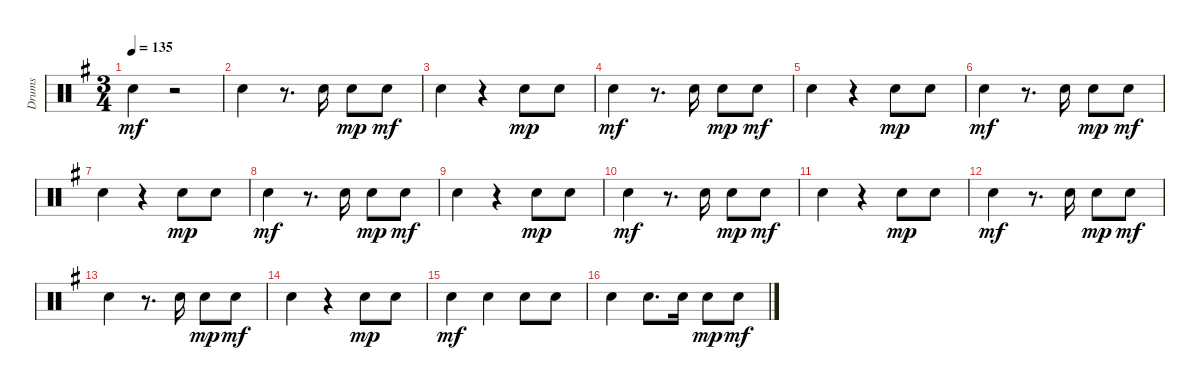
\track ("Drums" "Drums") {instrument percussion}
\staff {score}
\articulation defaults
\ts (3 4)
\tempo 135
\clef neutral
\ks eminor "Snare (hit) 2".4{dy mf}
r.2 |
"Snare (hit) 2".4 r.8{d} "Snare (hit) 2".16 "Snare (hit) 2".8{dy mp} "Snare (hit) 2".8{dy mf} |
"Snare (hit) 2".4 r.4 "Snare (hit) 2".8{dy mp} "Snare (hit) 2".8 |
"Snare (hit) 2".4{dy mf} r.8{d} "Snare (hit) 2".16 "Snare (hit) 2".8{dy mp} "Snare (hit) 2".8{dy mf} |
"Snare (hit) 2".4 r.4 "Snare (hit) 2".8{dy mp} "Snare (hit) 2".8 |
"Snare (hit) 2".4{dy mf} r.8{d} "Snare (hit) 2".16 "Snare (hit) 2".8{dy mp} "Snare (hit) 2".8{dy mf} |
"Snare (hit) 2".4 r.4 "Snare (hit) 2".8{dy mp} "Snare (hit) 2".8 |
"Snare (hit) 2".4{dy mf} r.8{d} "Snare (hit) 2".16 "Snare (hit) 2".8{dy mp} "Snare (hit) 2".8{dy mf} |
"Snare (hit) 2".4 r.4 "Snare (hit) 2".8{dy mp} "Snare (hit) 2".8 |
"Snare (hit) 2".4{dy mf} r.8{d} "Snare (hit) 2".16 "Snare (hit) 2".8{dy mp} "Snare (hit) 2".8{dy mf} |
"Snare (hit) 2".4 r.4 "Snare (hit) 2".8{dy mp} "Snare (hit) 2".8 |
"Snare (hit) 2".4{dy mf} r.8{d} "Snare (hit) 2".16 "Snare (hit) 2".8{dy mp} "Snare (hit) 2".8{dy mf} |
"Snare (hit) 2".4 r.8{d} "Snare (hit) 2".16 "Snare (hit) 2".8{dy mp} "Snare (hit) 2".8{dy mf} |
"Snare (hit) 2".4 r.4 "Snare (hit) 2".8{dy mp} "Snare (hit) 2".8 |
"Snare (hit) 2".4{dy mf} "Snare (hit) 2".4 "Snare (hit) 2".8 "Snare (hit) 2".8 |
"Snare (hit) 2".4 "Snare (hit) 2".8{d} "Snare (hit) 2".16 "Snare (hit) 2".8{dy mp} "Snare (hit) 2".8{dy mf}
